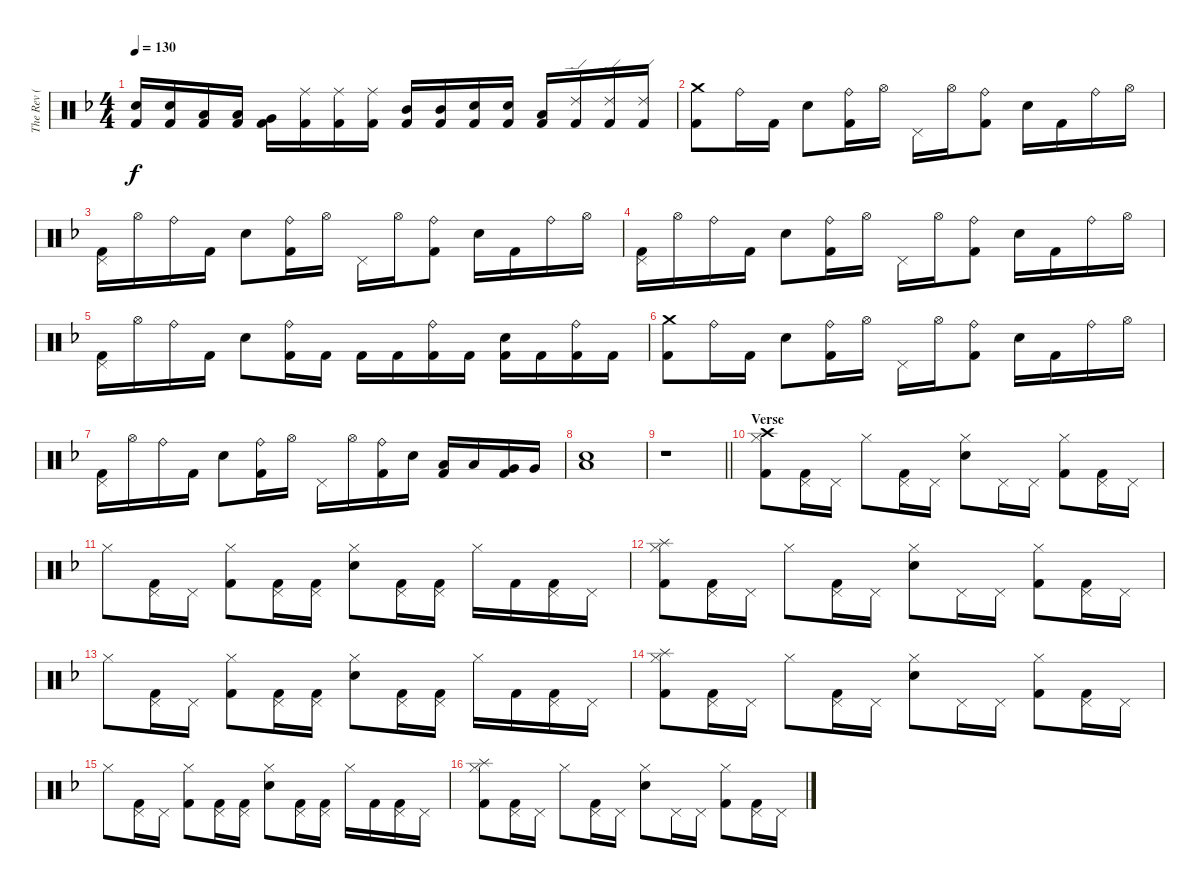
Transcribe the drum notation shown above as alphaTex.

\track ("The Rev ( Drums )" "The Rev ( ") {instrument percussion}
\staff {score}
\articulation defaults
\ts (4 4)
\tempo 130
\clef neutral
\ks f
("Snare (hit) 2" "Kick (hit) 2").16{dy f} ("Snare (hit) 2" "Kick (hit) 2").16 ("Low Tom (hit)" "Kick (hit) 2").16 ("Low Tom (hit)" "Kick (hit) 2").16 ("Very Low Tom (hit)" "Kick (hit) 2").16 ("Ride (middle)" "Kick (hit) 2").16 ("Ride (middle)" "Kick (hit) 2").16 ("Ride (middle)" "Kick (hit) 2").16 ("Mid Tom (hit)" "Kick (hit) 2").16 ("Mid Tom (hit)" "Kick (hit) 2").16 ("Snare (hit) 2" "Kick (hit) 2").16 ("Snare (hit) 2" "Kick (hit) 2").16 ("Low Tom (hit)" "Kick (hit) 2").16 ("Ride (edge) 2" "Kick (hit) 2").16 ("Ride (edge) 2" "Kick (hit) 2").16 ("Ride (edge) 2" "Kick (hit) 2").16 |
("Crash medium (hit)" "Kick (hit) 2").8 "Ride (bell)".16 "Kick (hit) 2".16 "Snare (hit) 2".8 ("Ride (bell)" "Kick (hit) 2").16 "Hi-Hat (open)".16 "Pedal Hi-Hat (hit)".16 "Hi-Hat (open)".16 ("Ride (bell)" "Kick (hit) 2").8 "Snare (hit) 2".16 "Kick (hit) 2".16 "Ride (bell)".16 "Hi-Hat (open)".16 |
("Pedal Hi-Hat (hit)" "Kick (hit) 2").16 "Hi-Hat (open)".16 "Ride (bell)".16 "Kick (hit) 2".16 "Snare (hit) 2".8 ("Ride (bell)" "Kick (hit) 2").16 "Hi-Hat (open)".16 "Pedal Hi-Hat (hit)".16 "Hi-Hat (open)".16 ("Ride (bell)" "Kick (hit) 2").8 "Snare (hit) 2".16 "Kick (hit) 2".16 "Ride (bell)".16 "Hi-Hat (open)".16 |
("Pedal Hi-Hat (hit)" "Kick (hit) 2").16 "Hi-Hat (open)".16 "Ride (bell)".16 "Kick (hit) 2".16 "Snare (hit) 2".8 ("Ride (bell)" "Kick (hit) 2").16 "Hi-Hat (open)".16 "Pedal Hi-Hat (hit)".16 "Hi-Hat (open)".16 ("Ride (bell)" "Kick (hit) 2").8 "Snare (hit) 2".16 "Kick (hit) 2".16 "Ride (bell)".16 "Hi-Hat (open)".16 |
("Pedal Hi-Hat (hit)" "Kick (hit) 2").16 "Hi-Hat (open)".16 "Ride (bell)".16 "Kick (hit) 2".16 "Snare (hit) 2".8 ("Ride (bell)" "Kick (hit) 2").16 "Kick (hit) 2".16 "Kick (hit) 2".16 "Kick (hit) 2".16 ("Ride (bell)" "Kick (hit) 2").16 "Kick (hit) 2".16 ("Snare (hit) 2" "Kick (hit) 2").16 "Kick (hit) 2".16 ("Ride (bell)" "Kick (hit) 2").16 "Kick (hit) 2".16 |
("Crash medium (hit)" "Kick (hit) 2").8 "Ride (bell)".16 "Kick (hit) 2".16 "Snare (hit) 2".8 ("Ride (bell)" "Kick (hit) 2").16 "Hi-Hat (open)".16 "Pedal Hi-Hat (hit)".16 "Hi-Hat (open)".16 ("Ride (bell)" "Kick (hit) 2").8 "Snare (hit) 2".16 "Kick (hit) 2".16 "Ride (bell)".16 "Hi-Hat (open)".16 |
("Pedal Hi-Hat (hit)" "Kick (hit) 2").16 "Hi-Hat (open)".16 "Ride (bell)".16 "Kick (hit) 2".16 "Snare (hit) 2".8 ("Ride (bell)" "Kick (hit) 2").16 "Hi-Hat (open)".16 "Pedal Hi-Hat (hit)".16 "Hi-Hat (open)".16 ("Ride (bell)" "Kick (hit) 2").16 "Snare (hit) 2".16 ("Low Tom (hit)" "Kick (hit) 2").16 "Low Tom (hit)".16 ("Very Low Tom (hit)" "Kick (hit) 2").16 "Very Low Tom (hit)".16 |
("Low Floor Tom (hit)" "Snare (hit) 2").1 |
\barLineRight lightlight
r.1 |
\section ("" "Verse")
("Crash high (hit)" "Hi-Hat (closed)" "Kick (hit) 2").8 ("Pedal Hi-Hat (hit)" "Kick (hit) 2").16 "Pedal Hi-Hat (hit)".16 "Hi-Hat (closed)".8 ("Pedal Hi-Hat (hit)" "Kick (hit) 2").16 "Pedal Hi-Hat (hit)".16 ("Hi-Hat (closed)" "Snare (hit) 2").8 "Pedal Hi-Hat (hit)".16 "Pedal Hi-Hat (hit)".16 ("Hi-Hat (closed)" "Kick (hit) 2").8 ("Pedal Hi-Hat (hit)" "Kick (hit) 2").16 "Pedal Hi-Hat (hit)".16 |
"Hi-Hat (closed)".8 ("Pedal Hi-Hat (hit)" "Kick (hit) 2").16 "Pedal Hi-Hat (hit)".16 ("Hi-Hat (closed)" "Kick (hit) 2").8 ("Pedal Hi-Hat (hit)" "Kick (hit) 2").16 ("Pedal Hi-Hat (hit)" "Kick (hit) 2").16 ("Hi-Hat (closed)" "Snare (hit) 2").8 ("Pedal Hi-Hat (hit)" "Kick (hit) 2").16 ("Pedal Hi-Hat (hit)" "Kick (hit) 2").16 "Hi-Hat (closed)".16 "Kick (hit) 2".16 ("Pedal Hi-Hat (hit)" "Kick (hit) 2").16 "Pedal Hi-Hat (hit)".16 |
("Splash (hit)" "Hi-Hat (closed)" "Kick (hit) 2").8 ("Pedal Hi-Hat (hit)" "Kick (hit) 2").16 "Pedal Hi-Hat (hit)".16 "Hi-Hat (closed)".8 ("Pedal Hi-Hat (hit)" "Kick (hit) 2").16 "Pedal Hi-Hat (hit)".16 ("Hi-Hat (closed)" "Snare (hit) 2").8 "Pedal Hi-Hat (hit)".16 "Pedal Hi-Hat (hit)".16 ("Hi-Hat (closed)" "Kick (hit) 2").8 ("Pedal Hi-Hat (hit)" "Kick (hit) 2").16 "Pedal Hi-Hat (hit)".16 |
"Hi-Hat (closed)".8 ("Pedal Hi-Hat (hit)" "Kick (hit) 2").16 "Pedal Hi-Hat (hit)".16 ("Hi-Hat (closed)" "Kick (hit) 2").8 ("Pedal Hi-Hat (hit)" "Kick (hit) 2").16 ("Pedal Hi-Hat (hit)" "Kick (hit) 2").16 ("Hi-Hat (closed)" "Snare (hit) 2").8 ("Pedal Hi-Hat (hit)" "Kick (hit) 2").16 ("Pedal Hi-Hat (hit)" "Kick (hit) 2").16 "Hi-Hat (closed)".16 "Kick (hit) 2".16 ("Pedal Hi-Hat (hit)" "Kick (hit) 2").16 "Pedal Hi-Hat (hit)".16 |
("Splash (hit)" "Hi-Hat (closed)" "Kick (hit) 2").8 ("Pedal Hi-Hat (hit)" "Kick (hit) 2").16 "Pedal Hi-Hat (hit)".16 "Hi-Hat (closed)".8 ("Pedal Hi-Hat (hit)" "Kick (hit) 2").16 "Pedal Hi-Hat (hit)".16 ("Hi-Hat (closed)" "Snare (hit) 2").8 "Pedal Hi-Hat (hit)".16 "Pedal Hi-Hat (hit)".16 ("Hi-Hat (closed)" "Kick (hit) 2").8 ("Pedal Hi-Hat (hit)" "Kick (hit) 2").16 "Pedal Hi-Hat (hit)".16 |
"Hi-Hat (closed)".8 ("Pedal Hi-Hat (hit)" "Kick (hit) 2").16 "Pedal Hi-Hat (hit)".16 ("Hi-Hat (closed)" "Kick (hit) 2").8 ("Pedal Hi-Hat (hit)" "Kick (hit) 2").16 ("Pedal Hi-Hat (hit)" "Kick (hit) 2").16 ("Hi-Hat (closed)" "Snare (hit) 2").8 ("Pedal Hi-Hat (hit)" "Kick (hit) 2").16 ("Pedal Hi-Hat (hit)" "Kick (hit) 2").16 "Hi-Hat (closed)".16 "Kick (hit) 2".16 ("Pedal Hi-Hat (hit)" "Kick (hit) 2").16 "Pedal Hi-Hat (hit)".16 |
("Splash (hit)" "Hi-Hat (closed)" "Kick (hit) 2").8 ("Pedal Hi-Hat (hit)" "Kick (hit) 2").16 "Pedal Hi-Hat (hit)".16 "Hi-Hat (closed)".8 ("Pedal Hi-Hat (hit)" "Kick (hit) 2").16 "Pedal Hi-Hat (hit)".16 ("Hi-Hat (closed)" "Snare (hit) 2").8 "Pedal Hi-Hat (hit)".16 "Pedal Hi-Hat (hit)".16 ("Hi-Hat (closed)" "Kick (hit) 2").8 ("Pedal Hi-Hat (hit)" "Kick (hit) 2").16 "Pedal Hi-Hat (hit)".16
